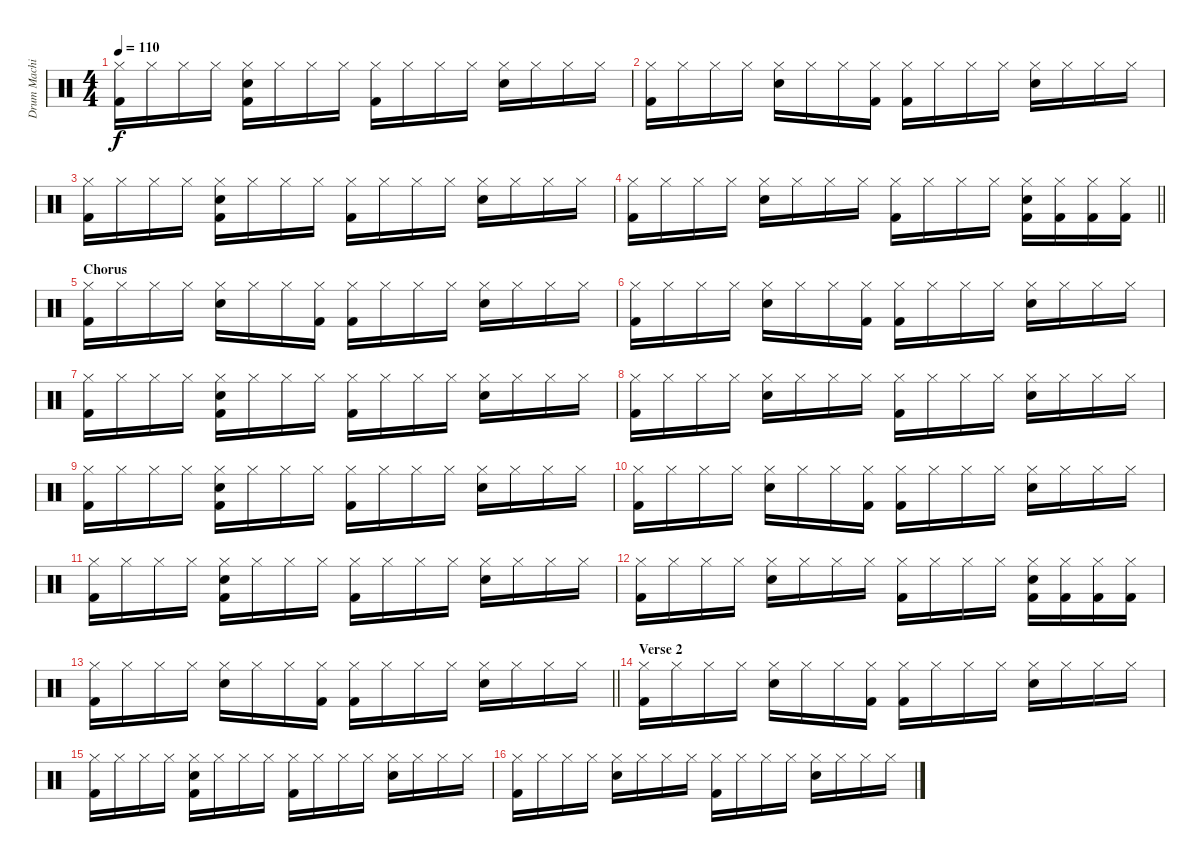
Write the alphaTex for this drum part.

\track ("Drum Machine" "Drum Machi") {instrument percussion}
\staff {score}
\articulation defaults
\ts (4 4)
\tempo 110
\clef neutral
\ks c
("Hi-Hat (closed)" "Kick (hit) 2").16{dy f volume 10} "Hi-Hat (closed)".16 "Hi-Hat (closed)".16 "Hi-Hat (closed)".16 ("Hi-Hat (closed)" "Hand Clap (hit)" "Kick (hit) 2").16 "Hi-Hat (closed)".16 "Hi-Hat (closed)".16 "Hi-Hat (closed)".16 ("Hi-Hat (closed)" "Kick (hit) 2").16 "Hi-Hat (closed)".16 "Hi-Hat (closed)".16 "Hi-Hat (closed)".16 ("Hi-Hat (closed)" "Hand Clap (hit)").16 "Hi-Hat (closed)".16 "Hi-Hat (closed)".16 "Hi-Hat (closed)".16 |
("Hi-Hat (closed)" "Kick (hit) 2").16 "Hi-Hat (closed)".16 "Hi-Hat (closed)".16 "Hi-Hat (closed)".16 ("Hi-Hat (closed)" "Hand Clap (hit)").16 "Hi-Hat (closed)".16 "Hi-Hat (closed)".16 ("Hi-Hat (closed)" "Kick (hit) 2").16 ("Hi-Hat (closed)" "Kick (hit) 2").16 "Hi-Hat (closed)".16 "Hi-Hat (closed)".16 "Hi-Hat (closed)".16 ("Hi-Hat (closed)" "Hand Clap (hit)").16 "Hi-Hat (closed)".16 "Hi-Hat (closed)".16 "Hi-Hat (closed)".16 |
("Hi-Hat (closed)" "Kick (hit) 2").16 "Hi-Hat (closed)".16 "Hi-Hat (closed)".16 "Hi-Hat (closed)".16 ("Hi-Hat (closed)" "Hand Clap (hit)" "Kick (hit) 2").16 "Hi-Hat (closed)".16 "Hi-Hat (closed)".16 "Hi-Hat (closed)".16 ("Hi-Hat (closed)" "Kick (hit) 2").16 "Hi-Hat (closed)".16 "Hi-Hat (closed)".16 "Hi-Hat (closed)".16 ("Hi-Hat (closed)" "Hand Clap (hit)").16 "Hi-Hat (closed)".16 "Hi-Hat (closed)".16 "Hi-Hat (closed)".16 |
\barLineRight lightlight
("Hi-Hat (closed)" "Kick (hit) 2").16 "Hi-Hat (closed)".16 "Hi-Hat (closed)".16 "Hi-Hat (closed)".16 ("Hi-Hat (closed)" "Hand Clap (hit)").16 "Hi-Hat (closed)".16 "Hi-Hat (closed)".16 "Hi-Hat (closed)".16 ("Hi-Hat (closed)" "Kick (hit) 2").16 "Hi-Hat (closed)".16 "Hi-Hat (closed)".16 "Hi-Hat (closed)".16 ("Hi-Hat (closed)" "Hand Clap (hit)" "Kick (hit) 2").16 ("Hi-Hat (closed)" "Kick (hit) 2").16 ("Hi-Hat (closed)" "Kick (hit) 2").16 ("Hi-Hat (closed)" "Kick (hit) 2").16 |
\section ("" "Chorus")
("Hi-Hat (closed)" "Kick (hit) 2").16 "Hi-Hat (closed)".16 "Hi-Hat (closed)".16 "Hi-Hat (closed)".16 ("Hi-Hat (closed)" "Hand Clap (hit)").16 "Hi-Hat (closed)".16 "Hi-Hat (closed)".16 ("Hi-Hat (closed)" "Kick (hit) 2").16 ("Hi-Hat (closed)" "Kick (hit) 2").16 "Hi-Hat (closed)".16 "Hi-Hat (closed)".16 "Hi-Hat (closed)".16 ("Hi-Hat (closed)" "Hand Clap (hit)").16 "Hi-Hat (closed)".16 "Hi-Hat (closed)".16 "Hi-Hat (closed)".16 |
("Hi-Hat (closed)" "Kick (hit) 2").16 "Hi-Hat (closed)".16 "Hi-Hat (closed)".16 "Hi-Hat (closed)".16 ("Hi-Hat (closed)" "Hand Clap (hit)").16 "Hi-Hat (closed)".16 "Hi-Hat (closed)".16 ("Hi-Hat (closed)" "Kick (hit) 2").16 ("Hi-Hat (closed)" "Kick (hit) 2").16 "Hi-Hat (closed)".16 "Hi-Hat (closed)".16 "Hi-Hat (closed)".16 ("Hi-Hat (closed)" "Hand Clap (hit)").16 "Hi-Hat (closed)".16 "Hi-Hat (closed)".16 "Hi-Hat (closed)".16 |
("Hi-Hat (closed)" "Kick (hit) 2").16 "Hi-Hat (closed)".16 "Hi-Hat (closed)".16 "Hi-Hat (closed)".16 ("Hi-Hat (closed)" "Hand Clap (hit)" "Kick (hit) 2").16 "Hi-Hat (closed)".16 "Hi-Hat (closed)".16 "Hi-Hat (closed)".16 ("Hi-Hat (closed)" "Kick (hit) 2").16 "Hi-Hat (closed)".16 "Hi-Hat (closed)".16 "Hi-Hat (closed)".16 ("Hi-Hat (closed)" "Hand Clap (hit)").16 "Hi-Hat (closed)".16 "Hi-Hat (closed)".16 "Hi-Hat (closed)".16 |
("Hi-Hat (closed)" "Kick (hit) 2").16 "Hi-Hat (closed)".16 "Hi-Hat (closed)".16 "Hi-Hat (closed)".16 ("Hi-Hat (closed)" "Hand Clap (hit)").16 "Hi-Hat (closed)".16 "Hi-Hat (closed)".16 "Hi-Hat (closed)".16 ("Hi-Hat (closed)" "Kick (hit) 2").16 "Hi-Hat (closed)".16 "Hi-Hat (closed)".16 "Hi-Hat (closed)".16 ("Hi-Hat (closed)" "Hand Clap (hit)").16 "Hi-Hat (closed)".16 "Hi-Hat (closed)".16 "Hi-Hat (closed)".16 |
("Hi-Hat (closed)" "Kick (hit) 2").16{volume 10} "Hi-Hat (closed)".16 "Hi-Hat (closed)".16 "Hi-Hat (closed)".16 ("Hi-Hat (closed)" "Hand Clap (hit)" "Kick (hit) 2").16 "Hi-Hat (closed)".16 "Hi-Hat (closed)".16 "Hi-Hat (closed)".16 ("Hi-Hat (closed)" "Kick (hit) 2").16 "Hi-Hat (closed)".16 "Hi-Hat (closed)".16 "Hi-Hat (closed)".16 ("Hi-Hat (closed)" "Hand Clap (hit)").16 "Hi-Hat (closed)".16 "Hi-Hat (closed)".16 "Hi-Hat (closed)".16 |
("Hi-Hat (closed)" "Kick (hit) 2").16 "Hi-Hat (closed)".16 "Hi-Hat (closed)".16 "Hi-Hat (closed)".16 ("Hi-Hat (closed)" "Hand Clap (hit)").16 "Hi-Hat (closed)".16 "Hi-Hat (closed)".16 ("Hi-Hat (closed)" "Kick (hit) 2").16 ("Hi-Hat (closed)" "Kick (hit) 2").16 "Hi-Hat (closed)".16 "Hi-Hat (closed)".16 "Hi-Hat (closed)".16 ("Hi-Hat (closed)" "Hand Clap (hit)").16 "Hi-Hat (closed)".16 "Hi-Hat (closed)".16 "Hi-Hat (closed)".16 |
("Hi-Hat (closed)" "Kick (hit) 2").16 "Hi-Hat (closed)".16 "Hi-Hat (closed)".16 "Hi-Hat (closed)".16 ("Hi-Hat (closed)" "Hand Clap (hit)" "Kick (hit) 2").16 "Hi-Hat (closed)".16 "Hi-Hat (closed)".16 "Hi-Hat (closed)".16 ("Hi-Hat (closed)" "Kick (hit) 2").16 "Hi-Hat (closed)".16 "Hi-Hat (closed)".16 "Hi-Hat (closed)".16 ("Hi-Hat (closed)" "Hand Clap (hit)").16 "Hi-Hat (closed)".16 "Hi-Hat (closed)".16 "Hi-Hat (closed)".16 |
("Hi-Hat (closed)" "Kick (hit) 2").16 "Hi-Hat (closed)".16 "Hi-Hat (closed)".16 "Hi-Hat (closed)".16 ("Hi-Hat (closed)" "Hand Clap (hit)").16 "Hi-Hat (closed)".16 "Hi-Hat (closed)".16 "Hi-Hat (closed)".16 ("Hi-Hat (closed)" "Kick (hit) 2").16 "Hi-Hat (closed)".16 "Hi-Hat (closed)".16 "Hi-Hat (closed)".16 ("Hi-Hat (closed)" "Hand Clap (hit)" "Kick (hit) 2").16 ("Hi-Hat (closed)" "Kick (hit) 2").16 ("Hi-Hat (closed)" "Kick (hit) 2").16 ("Hi-Hat (closed)" "Kick (hit) 2").16 |
\barLineRight lightlight
("Hi-Hat (closed)" "Kick (hit) 2").16 "Hi-Hat (closed)".16 "Hi-Hat (closed)".16 "Hi-Hat (closed)".16 ("Hi-Hat (closed)" "Hand Clap (hit)").16 "Hi-Hat (closed)".16 "Hi-Hat (closed)".16 ("Hi-Hat (closed)" "Kick (hit) 2").16 ("Hi-Hat (closed)" "Kick (hit) 2").16 "Hi-Hat (closed)".16 "Hi-Hat (closed)".16 "Hi-Hat (closed)".16 ("Hi-Hat (closed)" "Hand Clap (hit)").16 "Hi-Hat (closed)".16 "Hi-Hat (closed)".16 "Hi-Hat (closed)".16 |
\section ("" "Verse 2")
("Hi-Hat (closed)" "Kick (hit) 2").16 "Hi-Hat (closed)".16 "Hi-Hat (closed)".16 "Hi-Hat (closed)".16 ("Hi-Hat (closed)" "Hand Clap (hit)").16 "Hi-Hat (closed)".16 "Hi-Hat (closed)".16 ("Hi-Hat (closed)" "Kick (hit) 2").16 ("Hi-Hat (closed)" "Kick (hit) 2").16 "Hi-Hat (closed)".16 "Hi-Hat (closed)".16 "Hi-Hat (closed)".16 ("Hi-Hat (closed)" "Hand Clap (hit)").16 "Hi-Hat (closed)".16 "Hi-Hat (closed)".16 "Hi-Hat (closed)".16 |
("Hi-Hat (closed)" "Kick (hit) 2").16 "Hi-Hat (closed)".16 "Hi-Hat (closed)".16 "Hi-Hat (closed)".16 ("Hi-Hat (closed)" "Hand Clap (hit)" "Kick (hit) 2").16 "Hi-Hat (closed)".16 "Hi-Hat (closed)".16 "Hi-Hat (closed)".16 ("Hi-Hat (closed)" "Kick (hit) 2").16 "Hi-Hat (closed)".16 "Hi-Hat (closed)".16 "Hi-Hat (closed)".16 ("Hi-Hat (closed)" "Hand Clap (hit)").16 "Hi-Hat (closed)".16 "Hi-Hat (closed)".16 "Hi-Hat (closed)".16 |
("Hi-Hat (closed)" "Kick (hit) 2").16 "Hi-Hat (closed)".16 "Hi-Hat (closed)".16 "Hi-Hat (closed)".16 ("Hi-Hat (closed)" "Hand Clap (hit)").16 "Hi-Hat (closed)".16 "Hi-Hat (closed)".16 "Hi-Hat (closed)".16 ("Hi-Hat (closed)" "Kick (hit) 2").16 "Hi-Hat (closed)".16 "Hi-Hat (closed)".16 "Hi-Hat (closed)".16 ("Hi-Hat (closed)" "Hand Clap (hit)").16 "Hi-Hat (closed)".16 "Hi-Hat (closed)".16 "Hi-Hat (closed)".16
